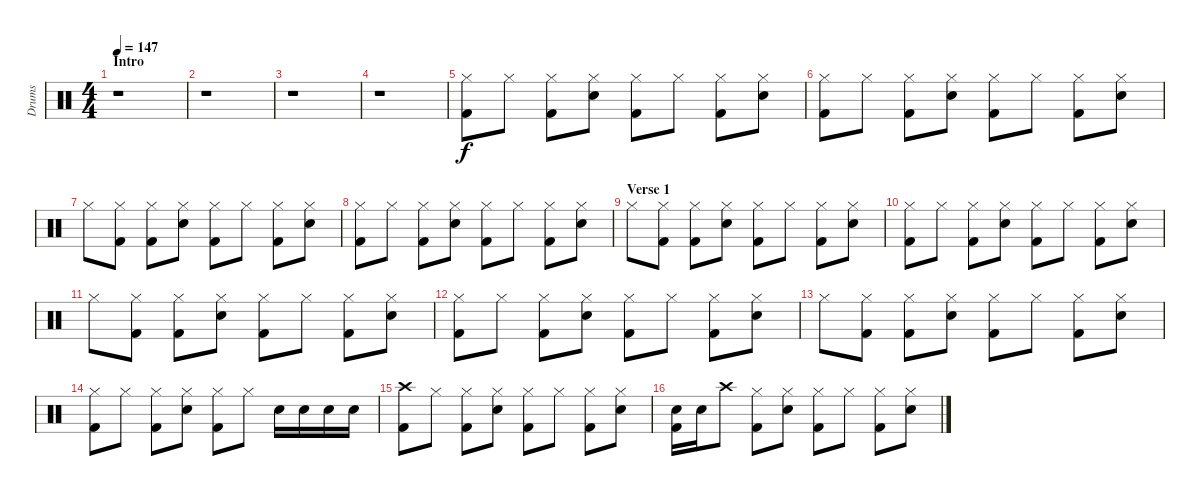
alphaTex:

\track ("Drums" "Drums") {instrument percussion}
\staff {score}
\articulation defaults
\ts (4 4)
\section ("" "Intro")
\tempo 147
\clef neutral
\ks c
r.1{dy f} |
r.1 |
r.1 |
r.1 |
("Kick (hit) 2" "Hi-Hat (closed)").8 "Hi-Hat (closed)".8 ("Kick (hit) 2" "Hi-Hat (closed)").8 ("Electric Snare (hit)" "Hi-Hat (closed)").8 ("Kick (hit) 2" "Hi-Hat (closed)").8 "Hi-Hat (closed)".8 ("Kick (hit) 2" "Hi-Hat (closed)").8 ("Electric Snare (hit)" "Hi-Hat (closed)").8 |
("Kick (hit) 2" "Hi-Hat (closed)").8 "Hi-Hat (closed)".8 ("Kick (hit) 2" "Hi-Hat (closed)").8 ("Electric Snare (hit)" "Hi-Hat (closed)").8 ("Kick (hit) 2" "Hi-Hat (closed)").8 "Hi-Hat (closed)".8 ("Kick (hit) 2" "Hi-Hat (closed)").8 ("Electric Snare (hit)" "Hi-Hat (closed)").8 |
"Hi-Hat (closed)".8 ("Kick (hit) 2" "Hi-Hat (closed)").8 ("Kick (hit) 2" "Hi-Hat (closed)").8 ("Electric Snare (hit)" "Hi-Hat (closed)").8 ("Kick (hit) 2" "Hi-Hat (closed)").8 "Hi-Hat (closed)".8 ("Kick (hit) 2" "Hi-Hat (closed)").8 ("Electric Snare (hit)" "Hi-Hat (closed)").8 |
("Kick (hit) 2" "Hi-Hat (closed)").8 "Hi-Hat (closed)".8 ("Kick (hit) 2" "Hi-Hat (closed)").8 ("Electric Snare (hit)" "Hi-Hat (closed)").8 ("Kick (hit) 2" "Hi-Hat (closed)").8 "Hi-Hat (closed)".8 ("Kick (hit) 2" "Hi-Hat (closed)").8 ("Electric Snare (hit)" "Hi-Hat (closed)").8 |
\section ("" "Verse 1")
"Hi-Hat (closed)".8 ("Kick (hit) 2" "Hi-Hat (closed)").8 ("Kick (hit) 2" "Hi-Hat (closed)").8 ("Electric Snare (hit)" "Hi-Hat (closed)").8 ("Kick (hit) 2" "Hi-Hat (closed)").8 "Hi-Hat (closed)".8 ("Kick (hit) 2" "Hi-Hat (closed)").8 ("Electric Snare (hit)" "Hi-Hat (closed)").8 |
("Kick (hit) 2" "Hi-Hat (closed)").8 "Hi-Hat (closed)".8 ("Kick (hit) 2" "Hi-Hat (closed)").8 ("Electric Snare (hit)" "Hi-Hat (closed)").8 ("Kick (hit) 2" "Hi-Hat (closed)").8 "Hi-Hat (closed)".8 ("Kick (hit) 2" "Hi-Hat (closed)").8 ("Electric Snare (hit)" "Hi-Hat (closed)").8 |
"Hi-Hat (closed)".8 ("Kick (hit) 2" "Hi-Hat (closed)").8 ("Kick (hit) 2" "Hi-Hat (closed)").8 ("Electric Snare (hit)" "Hi-Hat (closed)").8 ("Kick (hit) 2" "Hi-Hat (closed)").8 "Hi-Hat (closed)".8 ("Kick (hit) 2" "Hi-Hat (closed)").8 ("Electric Snare (hit)" "Hi-Hat (closed)").8 |
("Kick (hit) 2" "Hi-Hat (closed)").8 "Hi-Hat (closed)".8 ("Kick (hit) 2" "Hi-Hat (closed)").8 ("Electric Snare (hit)" "Hi-Hat (closed)").8 ("Kick (hit) 2" "Hi-Hat (closed)").8 "Hi-Hat (closed)".8 ("Kick (hit) 2" "Hi-Hat (closed)").8 ("Electric Snare (hit)" "Hi-Hat (closed)").8 |
"Hi-Hat (closed)".8 ("Kick (hit) 2" "Hi-Hat (closed)").8 ("Kick (hit) 2" "Hi-Hat (closed)").8 ("Electric Snare (hit)" "Hi-Hat (closed)").8 ("Kick (hit) 2" "Hi-Hat (closed)").8 "Hi-Hat (closed)".8 ("Kick (hit) 2" "Hi-Hat (closed)").8 ("Electric Snare (hit)" "Hi-Hat (closed)").8 |
("Kick (hit) 2" "Hi-Hat (closed)").8 "Hi-Hat (closed)".8 ("Kick (hit) 2" "Hi-Hat (closed)").8 ("Electric Snare (hit)" "Hi-Hat (closed)").8 ("Kick (hit) 2" "Hi-Hat (closed)").8 "Hi-Hat (closed)".8 "Electric Snare (hit)".16 "Electric Snare (hit)".16 "Electric Snare (hit)".16 "Electric Snare (hit)".16 |
("Kick (hit) 2" "Crash high (hit)").8 "Hi-Hat (closed)".8 ("Kick (hit) 2" "Hi-Hat (closed)").8 ("Electric Snare (hit)" "Hi-Hat (closed)").8 ("Kick (hit) 2" "Hi-Hat (closed)").8 "Hi-Hat (closed)".8 ("Kick (hit) 2" "Hi-Hat (closed)").8 ("Electric Snare (hit)" "Hi-Hat (closed)").8 |
("Kick (hit) 2" "Electric Snare (hit)").16 "Electric Snare (hit)".16 "Crash high (hit)".8 ("Kick (hit) 2" "Hi-Hat (closed)").8 ("Electric Snare (hit)" "Hi-Hat (closed)").8 ("Kick (hit) 2" "Hi-Hat (closed)").8 "Hi-Hat (closed)".8 ("Kick (hit) 2" "Hi-Hat (closed)").8 ("Electric Snare (hit)" "Hi-Hat (closed)").8
